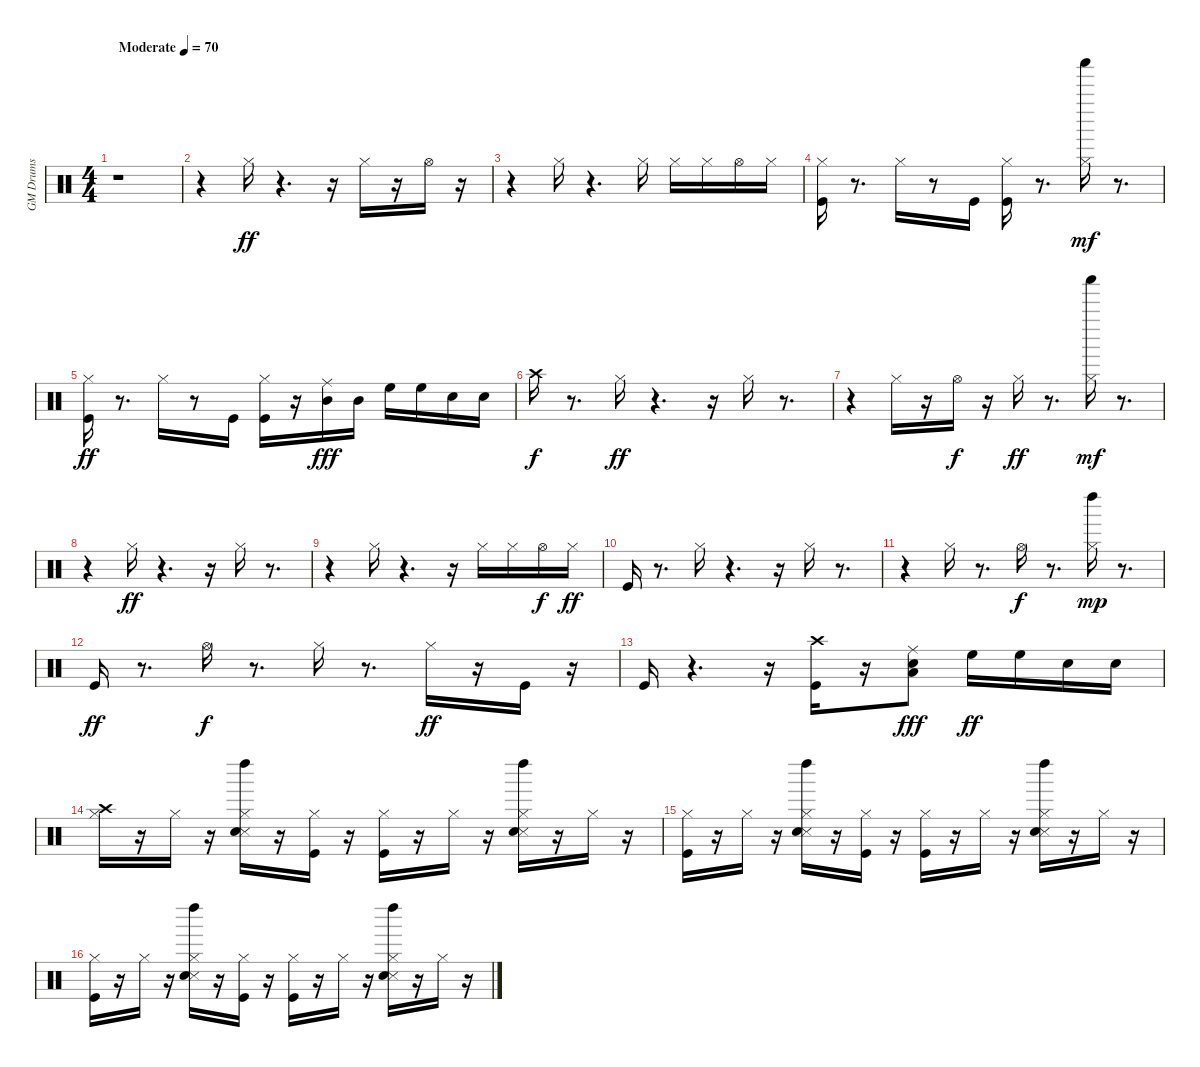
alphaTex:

\track ("GM Drums" "GM Drums") {instrument percussion}
\staff {score}
\articulation defaults
\ts (4 4)
\tempo (70 "Moderate")
\clef neutral
\ks c
r.1{dy ff} |
r.4 "Hi-Hat (closed)".16 r.4{d} r.16 "Hi-Hat (closed)".16 r.16 "Hi-Hat (open)".16 r.16 |
r.4 "Hi-Hat (closed)".16 r.4{d} "Hi-Hat (closed)".16 "Hi-Hat (closed)".16 "Hi-Hat (closed)".16 "Hi-Hat (open)".16 "Hi-Hat (closed)".16 |
("Kick (hit)" "Hi-Hat (closed)").16 r.8{d} "Hi-Hat (closed)".16 r.8 "Kick (hit)".16 ("Kick (hit)" "Hi-Hat (closed)").16 r.8{d} ("Hi-Hat (closed)" "Shaker (hit)").16{dy mf} r.8{d} |
("Kick (hit)" "Hi-Hat (closed)").16{dy ff} r.8{d} "Hi-Hat (closed)".16 r.8 "Kick (hit)".16 ("Kick (hit)" "Hi-Hat (closed)").16 r.16 ("Mid Tom (hit)" "Ride (middle)").16{dy fff} "Mid Tom (hit)".16 "High Floor Tom (hit)".16 "High Floor Tom (hit)".16 "Snare (hit) 2".16 "Snare (hit) 2".16 |
"Crash high (hit)".16{dy f} r.8{d} "Hi-Hat (closed)".16{dy ff} r.4{d} r.16 "Hi-Hat (closed)".16 r.8{d} |
r.4 "Hi-Hat (closed)".16 r.16 "Hi-Hat (open)".16{dy f} r.16 "Hi-Hat (closed)".16{dy ff} r.8{d} ("Hi-Hat (closed)" "Shaker (hit)").16{dy mf} r.8{d} |
r.4 "Hi-Hat (closed)".16{dy ff} r.4{d} r.16 "Hi-Hat (closed)".16 r.8{d} |
r.4 "Hi-Hat (closed)".16 r.4{d} r.16 "Hi-Hat (closed)".16 "Hi-Hat (closed)".16 "Hi-Hat (open)".16{dy f} "Hi-Hat (closed)".16{dy ff} |
"Kick (hit)".16 r.8{d} "Hi-Hat (closed)".16 r.4{d} r.16 "Hi-Hat (closed)".16 r.8{d} |
r.4 "Hi-Hat (closed)".16 r.8{d} "Hi-Hat (open)".16{dy f} r.8{d} ("Hi-Hat (closed)" "Left Maraca (hit)").16{dy mp} r.8{d} |
"Kick (hit)".16{dy ff} r.8{d} "Hi-Hat (open)".16{dy f} r.8{d} "Hi-Hat (closed)".16 r.8{d} "Hi-Hat (closed)".16{dy ff} r.16 "Kick (hit)".16 r.16 |
"Kick (hit)".16 r.4{d} r.16 ("Kick (hit)" "Crash high (hit)").16 r.16 ("Snare (hit) 2" "Ride (middle)" "Low Tom (hit)").8{dy fff} "High Floor Tom (hit)".16{dy ff} "High Floor Tom (hit)".16 "Snare (hit) 2".16 "Snare (hit) 2".16 |
("Hi-Hat (closed)" "Crash high (hit)").16 r.16 "Hi-Hat (closed)".16 r.16 ("Snare (side stick) 3" "Snare (hit) 2" "Hi-Hat (closed)" "Left Maraca (hit)").16 r.16 ("Kick (hit)" "Hi-Hat (closed)").16 r.16 ("Kick (hit)" "Hi-Hat (closed)").16 r.16 "Hi-Hat (closed)".16 r.16 ("Snare (side stick) 3" "Snare (hit) 2" "Hi-Hat (closed)" "Left Maraca (hit)").16 r.16 "Hi-Hat (closed)".16 r.16 |
("Kick (hit)" "Hi-Hat (closed)").16 r.16 "Hi-Hat (closed)".16 r.16 ("Snare (side stick) 3" "Snare (hit) 2" "Hi-Hat (closed)" "Left Maraca (hit)").16 r.16 ("Kick (hit)" "Hi-Hat (closed)").16 r.16 ("Kick (hit)" "Hi-Hat (closed)").16 r.16 "Hi-Hat (closed)".16 r.16 ("Snare (side stick) 3" "Snare (hit) 2" "Hi-Hat (closed)" "Left Maraca (hit)").16 r.16 "Hi-Hat (closed)".16 r.16 |
("Kick (hit)" "Hi-Hat (closed)").16 r.16 "Hi-Hat (closed)".16 r.16 ("Snare (side stick) 3" "Snare (hit) 2" "Hi-Hat (closed)" "Left Maraca (hit)").16 r.16 ("Kick (hit)" "Hi-Hat (closed)").16 r.16 ("Kick (hit)" "Hi-Hat (closed)").16 r.16 "Hi-Hat (closed)".16 r.16 ("Snare (side stick) 3" "Snare (hit) 2" "Hi-Hat (closed)" "Left Maraca (hit)").16 r.16 "Hi-Hat (closed)".16 r.16
